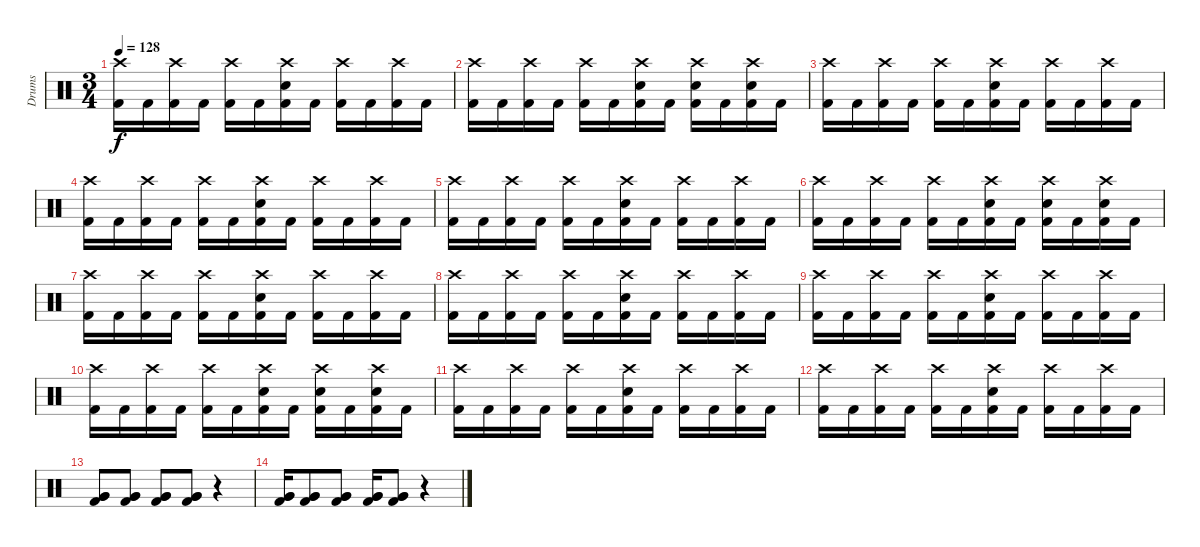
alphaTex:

\track ("Drums" "Drums") {instrument percussion}
\staff {score}
\articulation defaults
\ts (3 4)
\tempo 128
\clef neutral
\ks c
("Crash high (hit)" "Kick (hit) 2").16{dy f} "Kick (hit) 2".16 ("Crash high (hit)" "Kick (hit) 2").16 "Kick (hit) 2".16 ("Crash high (hit)" "Kick (hit) 2").16 "Kick (hit) 2".16 ("Crash high (hit)" "Snare (hit) 2" "Kick (hit) 2").16 "Kick (hit) 2".16 ("Crash high (hit)" "Kick (hit) 2").16 "Kick (hit) 2".16 ("Crash high (hit)" "Kick (hit) 2").16 "Kick (hit) 2".16 |
("Crash high (hit)" "Kick (hit) 2").16 "Kick (hit) 2".16 ("Crash high (hit)" "Kick (hit) 2").16 "Kick (hit) 2".16 ("Crash high (hit)" "Kick (hit) 2").16 "Kick (hit) 2".16 ("Crash high (hit)" "Snare (hit) 2" "Kick (hit) 2").16 "Kick (hit) 2".16 ("Crash high (hit)" "Snare (hit) 2" "Kick (hit) 2").16 "Kick (hit) 2".16 ("Crash high (hit)" "Snare (hit) 2" "Kick (hit) 2").16 "Kick (hit) 2".16 |
("Crash high (hit)" "Kick (hit) 2").16 "Kick (hit) 2".16 ("Crash high (hit)" "Kick (hit) 2").16 "Kick (hit) 2".16 ("Crash high (hit)" "Kick (hit) 2").16 "Kick (hit) 2".16 ("Crash high (hit)" "Snare (hit) 2" "Kick (hit) 2").16 "Kick (hit) 2".16 ("Crash high (hit)" "Kick (hit) 2").16 "Kick (hit) 2".16 ("Crash high (hit)" "Kick (hit) 2").16 "Kick (hit) 2".16 |
("Crash high (hit)" "Kick (hit) 2").16 "Kick (hit) 2".16 ("Crash high (hit)" "Kick (hit) 2").16 "Kick (hit) 2".16 ("Crash high (hit)" "Kick (hit) 2").16 "Kick (hit) 2".16 ("Crash high (hit)" "Snare (hit) 2" "Kick (hit) 2").16 "Kick (hit) 2".16 ("Crash high (hit)" "Kick (hit) 2").16 "Kick (hit) 2".16 ("Crash high (hit)" "Kick (hit) 2").16 "Kick (hit) 2".16 |
("Crash high (hit)" "Kick (hit) 2").16 "Kick (hit) 2".16 ("Crash high (hit)" "Kick (hit) 2").16 "Kick (hit) 2".16 ("Crash high (hit)" "Kick (hit) 2").16 "Kick (hit) 2".16 ("Crash high (hit)" "Snare (hit) 2" "Kick (hit) 2").16 "Kick (hit) 2".16 ("Crash high (hit)" "Kick (hit) 2").16 "Kick (hit) 2".16 ("Crash high (hit)" "Kick (hit) 2").16 "Kick (hit) 2".16 |
("Crash high (hit)" "Kick (hit) 2").16 "Kick (hit) 2".16 ("Crash high (hit)" "Kick (hit) 2").16 "Kick (hit) 2".16 ("Crash high (hit)" "Kick (hit) 2").16 "Kick (hit) 2".16 ("Crash high (hit)" "Snare (hit) 2" "Kick (hit) 2").16 "Kick (hit) 2".16 ("Crash high (hit)" "Snare (hit) 2" "Kick (hit) 2").16 "Kick (hit) 2".16 ("Crash high (hit)" "Snare (hit) 2" "Kick (hit) 2").16 "Kick (hit) 2".16 |
("Crash high (hit)" "Kick (hit) 2").16 "Kick (hit) 2".16 ("Crash high (hit)" "Kick (hit) 2").16 "Kick (hit) 2".16 ("Crash high (hit)" "Kick (hit) 2").16 "Kick (hit) 2".16 ("Crash high (hit)" "Snare (hit) 2" "Kick (hit) 2").16 "Kick (hit) 2".16 ("Crash high (hit)" "Kick (hit) 2").16 "Kick (hit) 2".16 ("Crash high (hit)" "Kick (hit) 2").16 "Kick (hit) 2".16 |
("Crash high (hit)" "Kick (hit) 2").16 "Kick (hit) 2".16 ("Crash high (hit)" "Kick (hit) 2").16 "Kick (hit) 2".16 ("Crash high (hit)" "Kick (hit) 2").16 "Kick (hit) 2".16 ("Crash high (hit)" "Snare (hit) 2" "Kick (hit) 2").16 "Kick (hit) 2".16 ("Crash high (hit)" "Kick (hit) 2").16 "Kick (hit) 2".16 ("Crash high (hit)" "Kick (hit) 2").16 "Kick (hit) 2".16 |
("Crash high (hit)" "Kick (hit) 2").16 "Kick (hit) 2".16 ("Crash high (hit)" "Kick (hit) 2").16 "Kick (hit) 2".16 ("Crash high (hit)" "Kick (hit) 2").16 "Kick (hit) 2".16 ("Crash high (hit)" "Snare (hit) 2" "Kick (hit) 2").16 "Kick (hit) 2".16 ("Crash high (hit)" "Kick (hit) 2").16 "Kick (hit) 2".16 ("Crash high (hit)" "Kick (hit) 2").16 "Kick (hit) 2".16 |
("Crash high (hit)" "Kick (hit) 2").16 "Kick (hit) 2".16 ("Crash high (hit)" "Kick (hit) 2").16 "Kick (hit) 2".16 ("Crash high (hit)" "Kick (hit) 2").16 "Kick (hit) 2".16 ("Crash high (hit)" "Snare (hit) 2" "Kick (hit) 2").16 "Kick (hit) 2".16 ("Crash high (hit)" "Snare (hit) 2" "Kick (hit) 2").16 "Kick (hit) 2".16 ("Crash high (hit)" "Snare (hit) 2" "Kick (hit) 2").16 "Kick (hit) 2".16 |
("Crash high (hit)" "Kick (hit) 2").16 "Kick (hit) 2".16 ("Crash high (hit)" "Kick (hit) 2").16 "Kick (hit) 2".16 ("Crash high (hit)" "Kick (hit) 2").16 "Kick (hit) 2".16 ("Crash high (hit)" "Snare (hit) 2" "Kick (hit) 2").16 "Kick (hit) 2".16 ("Crash high (hit)" "Kick (hit) 2").16 "Kick (hit) 2".16 ("Crash high (hit)" "Kick (hit) 2").16 "Kick (hit) 2".16 |
("Crash high (hit)" "Kick (hit) 2").16 "Kick (hit) 2".16 ("Crash high (hit)" "Kick (hit) 2").16 "Kick (hit) 2".16 ("Crash high (hit)" "Kick (hit) 2").16 "Kick (hit) 2".16 ("Crash high (hit)" "Snare (hit) 2" "Kick (hit) 2").16 "Kick (hit) 2".16 ("Crash high (hit)" "Kick (hit) 2").16 "Kick (hit) 2".16 ("Crash high (hit)" "Kick (hit) 2").16 "Kick (hit) 2".16 |
("Very Low Tom (hit)" "Very Low Tom (hit)" "Kick (hit) 2").8 ("Very Low Tom (hit)" "Very Low Tom (hit)" "Kick (hit) 2").8 ("Very Low Tom (hit)" "Very Low Tom (hit)" "Kick (hit) 2").8 ("Very Low Tom (hit)" "Very Low Tom (hit)" "Kick (hit) 2").8 r.4 |
("Very Low Tom (hit)" "Very Low Tom (hit)" "Kick (hit) 2").16 ("Very Low Tom (hit)" "Very Low Tom (hit)" "Kick (hit) 2").8 ("Very Low Tom (hit)" "Very Low Tom (hit)" "Kick (hit) 2").8 ("Very Low Tom (hit)" "Very Low Tom (hit)" "Kick (hit) 2").16 ("Very Low Tom (hit)" "Very Low Tom (hit)" "Kick (hit) 2").8 r.4
